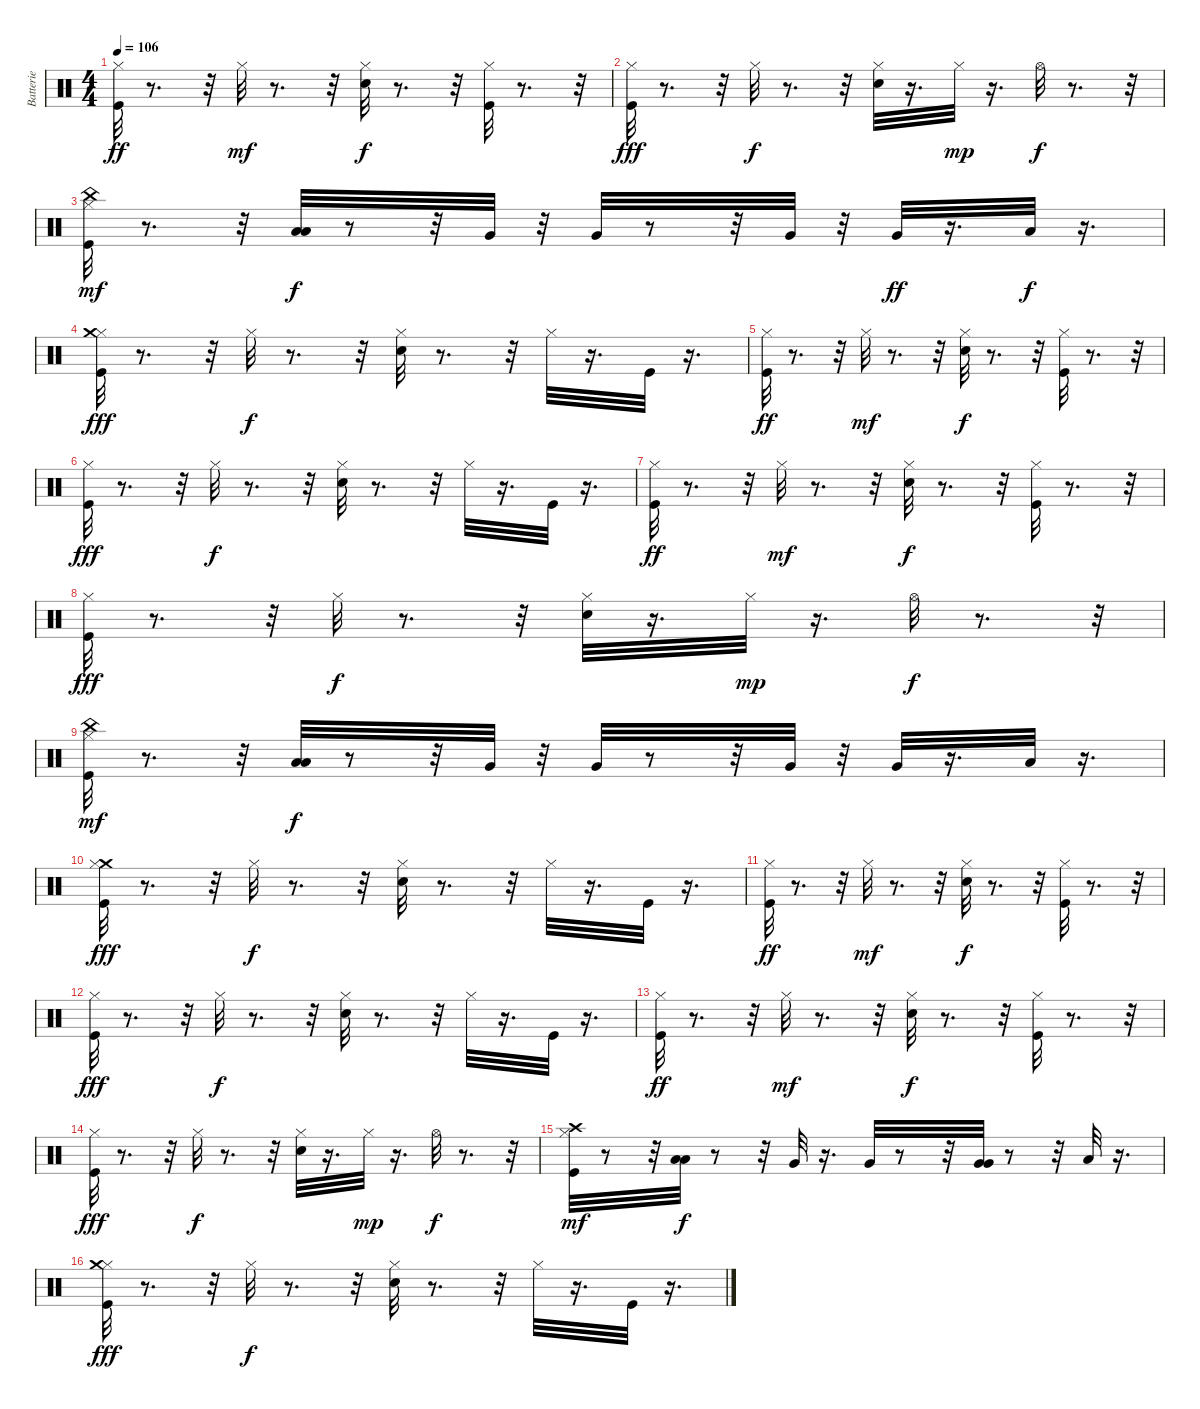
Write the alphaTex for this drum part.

\track ("Batterie" "Batterie") {instrument percussion}
\staff {score}
\articulation defaults
\ts (4 4)
\tempo 106
\clef neutral
\ks c
("Kick (hit)" "Hi-Hat (closed)").32{dy ff} r.8{d} r.32 "Hi-Hat (closed)".32{dy mf} r.8{d} r.32 ("Snare (hit) 2" "Hi-Hat (closed)").32{dy f} r.8{d} r.32 ("Kick (hit)" "Hi-Hat (closed)").32 r.8{d} r.32 |
("Hi-Hat (closed)" "Kick (hit)").32{dy fff} r.8{d} r.32 "Hi-Hat (closed)".32{dy f} r.8{d} r.32 ("Snare (hit) 2" "Hi-Hat (closed)").32 r.16{d} "Hi-Hat (closed)".32{dy mp} r.16{d} "Hi-Hat (open)".32{dy f} r.8{d} r.32 |
("Kick (hit)" "China (hit)" "Hi-Hat (closed)").32{dy mf} r.8{d} r.32 ("Low Tom (hit)" "Low Tom (hit)").32{dy f} r.8 r.32 "Very Low Tom (hit)".32 r.32 "Very Low Tom (hit)".32 r.8 r.32 "Very Low Tom (hit)".32 r.32 "Very Low Tom (hit)".32{dy ff} r.16{d} "Low Floor Tom (hit)".32{dy f} r.16{d} |
("Hi-Hat (closed)" "Crash medium (hit)" "Kick (hit)").32{dy fff} r.8{d} r.32 "Hi-Hat (closed)".32{dy f} r.8{d} r.32 ("Snare (hit) 2" "Hi-Hat (closed)").32 r.8{d} r.32 "Hi-Hat (closed)".32 r.16{d} "Kick (hit)".32 r.16{d} |
("Kick (hit)" "Hi-Hat (closed)").32{dy ff} r.8{d} r.32 "Hi-Hat (closed)".32{dy mf} r.8{d} r.32 ("Hi-Hat (closed)" "Snare (hit) 2").32{dy f} r.8{d} r.32 ("Kick (hit)" "Hi-Hat (closed)").32 r.8{d} r.32 |
("Hi-Hat (closed)" "Kick (hit)").32{dy fff} r.8{d} r.32 "Hi-Hat (closed)".32{dy f} r.8{d} r.32 ("Snare (hit) 2" "Hi-Hat (closed)").32 r.8{d} r.32 "Hi-Hat (closed)".32 r.16{d} "Kick (hit)".32 r.16{d} |
("Kick (hit)" "Hi-Hat (closed)").32{dy ff} r.8{d} r.32 "Hi-Hat (closed)".32{dy mf} r.8{d} r.32 ("Hi-Hat (closed)" "Snare (hit) 2").32{dy f} r.8{d} r.32 ("Kick (hit)" "Hi-Hat (closed)").32 r.8{d} r.32 |
("Hi-Hat (closed)" "Kick (hit)").32{dy fff} r.8{d} r.32 "Hi-Hat (closed)".32{dy f} r.8{d} r.32 ("Snare (hit) 2" "Hi-Hat (closed)").32 r.16{d} "Hi-Hat (closed)".32{dy mp} r.16{d} "Hi-Hat (open)".32{dy f} r.8{d} r.32 |
("Kick (hit)" "China (hit)" "Hi-Hat (closed)").32{dy mf} r.8{d} r.32 ("Low Tom (hit)" "Low Tom (hit)").32{dy f} r.8 r.32 "Very Low Tom (hit)".32 r.32 "Very Low Tom (hit)".32 r.8 r.32 "Very Low Tom (hit)".32 r.32 "Very Low Tom (hit)".32 r.16{d} "Low Floor Tom (hit)".32 r.16{d} |
("Crash medium (hit)" "Hi-Hat (closed)" "Kick (hit)").32{dy fff} r.8{d} r.32 "Hi-Hat (closed)".32{dy f} r.8{d} r.32 ("Snare (hit) 2" "Hi-Hat (closed)").32 r.8{d} r.32 "Hi-Hat (closed)".32 r.16{d} "Kick (hit)".32 r.16{d} |
("Kick (hit)" "Hi-Hat (closed)").32{dy ff} r.8{d} r.32 "Hi-Hat (closed)".32{dy mf} r.8{d} r.32 ("Snare (hit) 2" "Hi-Hat (closed)").32{dy f} r.8{d} r.32 ("Kick (hit)" "Hi-Hat (closed)").32 r.8{d} r.32 |
("Hi-Hat (closed)" "Kick (hit)").32{dy fff} r.8{d} r.32 "Hi-Hat (closed)".32{dy f} r.8{d} r.32 ("Snare (hit) 2" "Hi-Hat (closed)").32 r.8{d} r.32 "Hi-Hat (closed)".32 r.16{d} "Kick (hit)".32 r.16{d} |
("Kick (hit)" "Hi-Hat (closed)").32{dy ff} r.8{d} r.32 "Hi-Hat (closed)".32{dy mf} r.8{d} r.32 ("Hi-Hat (closed)" "Snare (hit) 2").32{dy f} r.8{d} r.32 ("Kick (hit)" "Hi-Hat (closed)").32 r.8{d} r.32 |
("Hi-Hat (closed)" "Kick (hit)").32{dy fff} r.8{d} r.32 "Hi-Hat (closed)".32{dy f} r.8{d} r.32 ("Snare (hit) 2" "Hi-Hat (closed)").32 r.16{d} "Hi-Hat (closed)".32{dy mp} r.16{d} "Hi-Hat (open)".32{dy f} r.8{d} r.32 |
("Kick (hit)" "Crash high (hit)" "Hi-Hat (closed)").32{dy mf} r.8 r.32 ("Low Tom (hit)" "Low Tom (hit)").32{dy f} r.8 r.32 "Very Low Tom (hit)".32 r.16{d} "Very Low Tom (hit)".32 r.8 r.32 ("Very Low Tom (hit)" "Very Low Tom (hit)").32 r.8 r.32 "Low Floor Tom (hit)".32 r.16{d} |
("Hi-Hat (closed)" "Crash medium (hit)" "Kick (hit)").32{dy fff} r.8{d} r.32 "Hi-Hat (closed)".32{dy f} r.8{d} r.32 ("Snare (hit) 2" "Hi-Hat (closed)").32 r.8{d} r.32 "Hi-Hat (closed)".32 r.16{d} "Kick (hit)".32 r.16{d}
